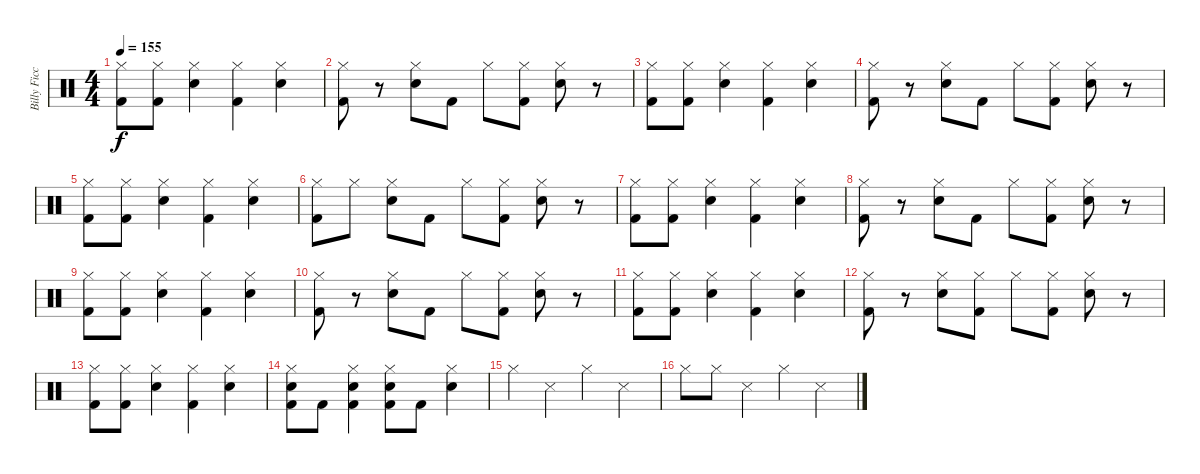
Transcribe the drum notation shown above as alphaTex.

\track ("Billy Ficca" "Billy Ficc") {instrument percussion}
\staff {score}
\articulation defaults
\ts (4 4)
\tempo 155
\clef neutral
\ks c
("Hi-Hat (closed)" "Kick (hit) 2").8{dy f} ("Hi-Hat (closed)" "Kick (hit) 2").8 ("Hi-Hat (closed)" "Electric Snare (hit)").4 ("Hi-Hat (closed)" "Kick (hit) 2").4 ("Hi-Hat (closed)" "Electric Snare (hit)").4 |
("Hi-Hat (closed)" "Kick (hit) 2").8 r.8 ("Hi-Hat (closed)" "Electric Snare (hit)").8 "Kick (hit) 2".8 "Hi-Hat (closed)".8 ("Hi-Hat (closed)" "Kick (hit) 2").8 ("Hi-Hat (closed)" "Electric Snare (hit)").8 r.8 |
("Hi-Hat (closed)" "Kick (hit) 2").8 ("Hi-Hat (closed)" "Kick (hit) 2").8 ("Hi-Hat (closed)" "Electric Snare (hit)").4 ("Hi-Hat (closed)" "Kick (hit) 2").4 ("Hi-Hat (closed)" "Electric Snare (hit)").4 |
("Hi-Hat (closed)" "Kick (hit) 2").8 r.8 ("Hi-Hat (closed)" "Electric Snare (hit)").8 "Kick (hit) 2".8 "Hi-Hat (closed)".8 ("Hi-Hat (closed)" "Kick (hit) 2").8 ("Hi-Hat (closed)" "Electric Snare (hit)").8 r.8 |
("Hi-Hat (closed)" "Kick (hit) 2").8 ("Hi-Hat (closed)" "Kick (hit) 2").8 ("Hi-Hat (closed)" "Electric Snare (hit)").4 ("Hi-Hat (closed)" "Kick (hit) 2").4 ("Hi-Hat (closed)" "Electric Snare (hit)").4 |
("Hi-Hat (closed)" "Kick (hit) 2").8 "Hi-Hat (closed)".8 ("Hi-Hat (closed)" "Electric Snare (hit)").8 "Kick (hit) 2".8 "Hi-Hat (closed)".8 ("Hi-Hat (closed)" "Kick (hit) 2").8 ("Hi-Hat (closed)" "Electric Snare (hit)").8 r.8 |
("Hi-Hat (closed)" "Kick (hit) 2").8 ("Hi-Hat (closed)" "Kick (hit) 2").8 ("Hi-Hat (closed)" "Electric Snare (hit)").4 ("Hi-Hat (closed)" "Kick (hit) 2").4 ("Hi-Hat (closed)" "Electric Snare (hit)").4 |
("Hi-Hat (closed)" "Kick (hit) 2").8 r.8 ("Hi-Hat (closed)" "Electric Snare (hit)").8 "Kick (hit) 2".8 "Hi-Hat (closed)".8 ("Hi-Hat (closed)" "Kick (hit) 2").8 ("Hi-Hat (closed)" "Electric Snare (hit)").8 r.8 |
("Hi-Hat (closed)" "Kick (hit) 2").8 ("Hi-Hat (closed)" "Kick (hit) 2").8 ("Hi-Hat (closed)" "Electric Snare (hit)").4 ("Hi-Hat (closed)" "Kick (hit) 2").4 ("Hi-Hat (closed)" "Electric Snare (hit)").4 |
("Hi-Hat (closed)" "Kick (hit) 2").8 r.8 ("Hi-Hat (closed)" "Electric Snare (hit)").8 "Kick (hit) 2".8 "Hi-Hat (closed)".8 ("Hi-Hat (closed)" "Kick (hit) 2").8 ("Hi-Hat (closed)" "Electric Snare (hit)").8 r.8 |
("Hi-Hat (closed)" "Kick (hit) 2").8 ("Hi-Hat (closed)" "Kick (hit) 2").8 ("Hi-Hat (closed)" "Electric Snare (hit)").4 ("Hi-Hat (closed)" "Kick (hit) 2").4 ("Hi-Hat (closed)" "Electric Snare (hit)").4 |
("Hi-Hat (closed)" "Kick (hit) 2").8 r.8 ("Hi-Hat (closed)" "Electric Snare (hit)").8 ("Hi-Hat (closed)" "Kick (hit) 2").8 "Hi-Hat (closed)".8 ("Hi-Hat (closed)" "Kick (hit) 2").8 ("Hi-Hat (closed)" "Electric Snare (hit)").8 r.8 |
("Hi-Hat (closed)" "Kick (hit) 2").8 ("Hi-Hat (closed)" "Kick (hit) 2").8 ("Hi-Hat (closed)" "Electric Snare (hit)").4 ("Hi-Hat (closed)" "Kick (hit) 2").4 ("Hi-Hat (closed)" "Electric Snare (hit)").4 |
("Hi-Hat (closed)" "Electric Snare (hit)" "Kick (hit) 2").8 "Kick (hit) 2".8 ("Hi-Hat (closed)" "Electric Snare (hit)" "Kick (hit) 2").4 ("Hi-Hat (closed)" "Electric Snare (hit)" "Kick (hit) 2").8 "Kick (hit) 2".8 ("Hi-Hat (closed)" "Electric Snare (hit)").4 |
"Hi-Hat (closed)".4 "Snare (side stick) 3".4 "Hi-Hat (closed)".4 "Snare (side stick) 3".4 |
"Hi-Hat (closed)".8 "Hi-Hat (closed)".8 "Snare (side stick) 3".4 "Hi-Hat (closed)".4 "Snare (side stick) 3".4
